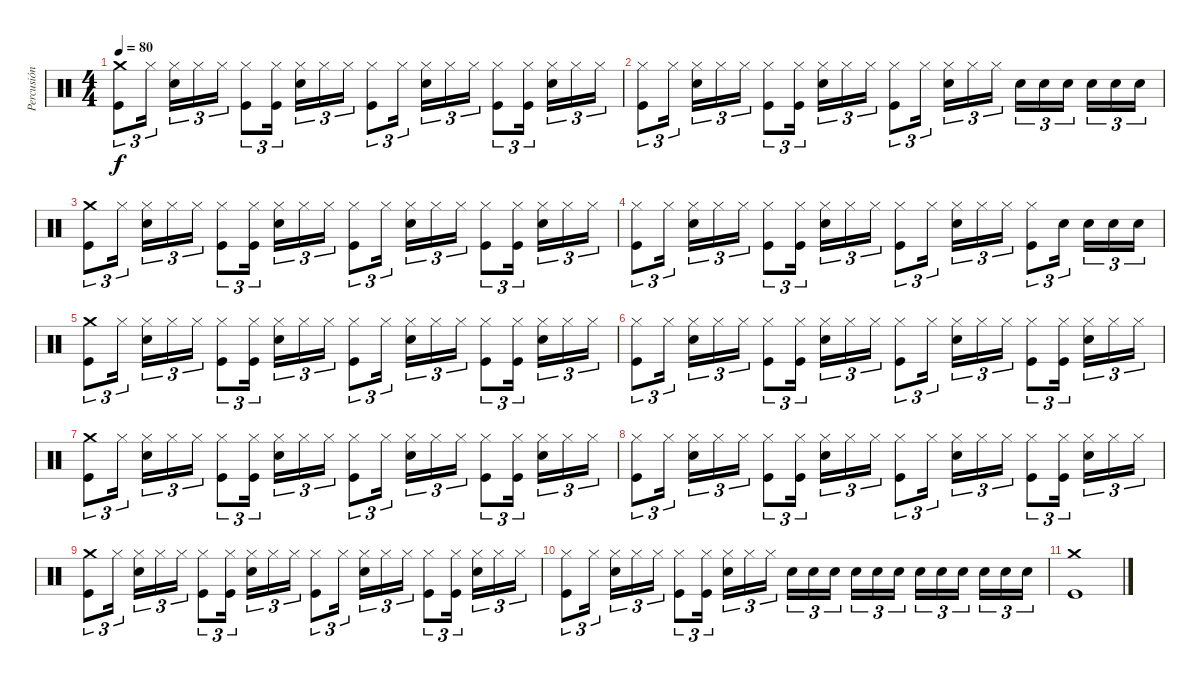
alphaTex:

\track ("Percusión con doble bombo" "Percusión ") {mute instrument percussion}
\staff {score}
\articulation defaults
\ts (4 4)
\tempo 80
\clef neutral
\ks c
("Crash medium (hit)" "Kick (hit)").8{tu (3 2) dy f} "Hi-Hat (closed)".16{tu (3 2) beam splitsecondary} ("Hi-Hat (closed)" "Snare (hit) 2").16{tu (3 2)} "Hi-Hat (closed)".16{tu (3 2)} "Hi-Hat (closed)".16{tu (3 2)} ("Hi-Hat (closed)" "Kick (hit)").8{tu (3 2)} ("Hi-Hat (closed)" "Kick (hit)").16{tu (3 2) beam splitsecondary} ("Hi-Hat (closed)" "Snare (hit) 2").16{tu (3 2)} "Hi-Hat (closed)".16{tu (3 2)} "Hi-Hat (closed)".16{tu (3 2)} ("Hi-Hat (closed)" "Kick (hit)").8{tu (3 2)} "Hi-Hat (closed)".16{tu (3 2) beam splitsecondary} ("Hi-Hat (closed)" "Snare (hit) 2").16{tu (3 2)} "Hi-Hat (closed)".16{tu (3 2)} "Hi-Hat (closed)".16{tu (3 2)} ("Hi-Hat (closed)" "Kick (hit)").8{tu (3 2)} ("Hi-Hat (closed)" "Kick (hit)").16{tu (3 2) beam splitsecondary} ("Hi-Hat (closed)" "Snare (hit) 2").16{tu (3 2)} "Hi-Hat (closed)".16{tu (3 2)} "Hi-Hat (closed)".16{tu (3 2)} |
("Hi-Hat (closed)" "Kick (hit)").8{tu (3 2)} "Hi-Hat (closed)".16{tu (3 2) beam splitsecondary} ("Hi-Hat (closed)" "Snare (hit) 2").16{tu (3 2)} "Hi-Hat (closed)".16{tu (3 2)} "Hi-Hat (closed)".16{tu (3 2)} ("Hi-Hat (closed)" "Kick (hit)").8{tu (3 2)} ("Hi-Hat (closed)" "Kick (hit)").16{tu (3 2) beam splitsecondary} ("Hi-Hat (closed)" "Snare (hit) 2").16{tu (3 2)} "Hi-Hat (closed)".16{tu (3 2)} "Hi-Hat (closed)".16{tu (3 2)} ("Hi-Hat (closed)" "Kick (hit)").8{tu (3 2)} "Hi-Hat (closed)".16{tu (3 2) beam splitsecondary} ("Hi-Hat (closed)" "Snare (hit) 2").16{tu (3 2)} "Hi-Hat (closed)".16{tu (3 2)} "Hi-Hat (closed)".16{tu (3 2)} "Snare (hit) 2".16{tu (3 2)} "Snare (hit) 2".16{tu (3 2)} "Snare (hit) 2".16{tu (3 2) beam splitsecondary} "Snare (hit) 2".16{tu (3 2)} "Snare (hit) 2".16{tu (3 2)} "Snare (hit) 2".16{tu (3 2)} |
("Crash medium (hit)" "Kick (hit)").8{tu (3 2)} "Hi-Hat (closed)".16{tu (3 2) beam splitsecondary} ("Hi-Hat (closed)" "Snare (hit) 2").16{tu (3 2)} "Hi-Hat (closed)".16{tu (3 2)} "Hi-Hat (closed)".16{tu (3 2)} ("Hi-Hat (closed)" "Kick (hit)").8{tu (3 2)} ("Hi-Hat (closed)" "Kick (hit)").16{tu (3 2) beam splitsecondary} ("Hi-Hat (closed)" "Snare (hit) 2").16{tu (3 2)} "Hi-Hat (closed)".16{tu (3 2)} "Hi-Hat (closed)".16{tu (3 2)} ("Hi-Hat (closed)" "Kick (hit)").8{tu (3 2)} "Hi-Hat (closed)".16{tu (3 2) beam splitsecondary} ("Hi-Hat (closed)" "Snare (hit) 2").16{tu (3 2)} "Hi-Hat (closed)".16{tu (3 2)} "Hi-Hat (closed)".16{tu (3 2)} ("Hi-Hat (closed)" "Kick (hit)").8{tu (3 2)} ("Hi-Hat (closed)" "Kick (hit)").16{tu (3 2) beam splitsecondary} ("Hi-Hat (closed)" "Snare (hit) 2").16{tu (3 2)} "Hi-Hat (closed)".16{tu (3 2)} "Hi-Hat (closed)".16{tu (3 2)} |
("Hi-Hat (closed)" "Kick (hit)").8{tu (3 2)} "Hi-Hat (closed)".16{tu (3 2) beam splitsecondary} ("Hi-Hat (closed)" "Snare (hit) 2").16{tu (3 2)} "Hi-Hat (closed)".16{tu (3 2)} "Hi-Hat (closed)".16{tu (3 2)} ("Hi-Hat (closed)" "Kick (hit)").8{tu (3 2)} ("Hi-Hat (closed)" "Kick (hit)").16{tu (3 2) beam splitsecondary} ("Hi-Hat (closed)" "Snare (hit) 2").16{tu (3 2)} "Hi-Hat (closed)".16{tu (3 2)} "Hi-Hat (closed)".16{tu (3 2)} ("Hi-Hat (closed)" "Kick (hit)").8{tu (3 2)} "Hi-Hat (closed)".16{tu (3 2) beam splitsecondary} ("Hi-Hat (closed)" "Snare (hit) 2").16{tu (3 2)} "Hi-Hat (closed)".16{tu (3 2)} "Hi-Hat (closed)".16{tu (3 2)} ("Hi-Hat (closed)" "Kick (hit)").8{tu (3 2)} "Snare (hit) 2".16{tu (3 2) beam splitsecondary} "Snare (hit) 2".16{tu (3 2)} "Snare (hit) 2".16{tu (3 2)} "Snare (hit) 2".16{tu (3 2)} |
("Crash medium (hit)" "Kick (hit)").8{tu (3 2)} "Hi-Hat (closed)".16{tu (3 2) beam splitsecondary} ("Hi-Hat (closed)" "Snare (hit) 2").16{tu (3 2)} "Hi-Hat (closed)".16{tu (3 2)} "Hi-Hat (closed)".16{tu (3 2)} ("Hi-Hat (closed)" "Kick (hit)").8{tu (3 2)} ("Hi-Hat (closed)" "Kick (hit)").16{tu (3 2) beam splitsecondary} ("Hi-Hat (closed)" "Snare (hit) 2").16{tu (3 2)} "Hi-Hat (closed)".16{tu (3 2)} "Hi-Hat (closed)".16{tu (3 2)} ("Hi-Hat (closed)" "Kick (hit)").8{tu (3 2)} "Hi-Hat (closed)".16{tu (3 2) beam splitsecondary} ("Hi-Hat (closed)" "Snare (hit) 2").16{tu (3 2)} "Hi-Hat (closed)".16{tu (3 2)} "Hi-Hat (closed)".16{tu (3 2)} ("Hi-Hat (closed)" "Kick (hit)").8{tu (3 2)} ("Hi-Hat (closed)" "Kick (hit)").16{tu (3 2) beam splitsecondary} ("Hi-Hat (closed)" "Snare (hit) 2").16{tu (3 2)} "Hi-Hat (closed)".16{tu (3 2)} "Hi-Hat (closed)".16{tu (3 2)} |
("Hi-Hat (closed)" "Kick (hit)").8{tu (3 2)} "Hi-Hat (closed)".16{tu (3 2) beam splitsecondary} ("Hi-Hat (closed)" "Snare (hit) 2").16{tu (3 2)} "Hi-Hat (closed)".16{tu (3 2)} "Hi-Hat (closed)".16{tu (3 2)} ("Hi-Hat (closed)" "Kick (hit)").8{tu (3 2)} ("Hi-Hat (closed)" "Kick (hit)").16{tu (3 2) beam splitsecondary} ("Hi-Hat (closed)" "Snare (hit) 2").16{tu (3 2)} "Hi-Hat (closed)".16{tu (3 2)} "Hi-Hat (closed)".16{tu (3 2)} ("Hi-Hat (closed)" "Kick (hit)").8{tu (3 2)} "Hi-Hat (closed)".16{tu (3 2) beam splitsecondary} ("Hi-Hat (closed)" "Snare (hit) 2").16{tu (3 2)} "Hi-Hat (closed)".16{tu (3 2)} "Hi-Hat (closed)".16{tu (3 2)} ("Hi-Hat (closed)" "Kick (hit)").8{tu (3 2)} ("Hi-Hat (closed)" "Kick (hit)").16{tu (3 2) beam splitsecondary} ("Hi-Hat (closed)" "Snare (hit) 2").16{tu (3 2)} "Hi-Hat (closed)".16{tu (3 2)} "Hi-Hat (closed)".16{tu (3 2)} |
("Crash medium (hit)" "Kick (hit)").8{tu (3 2)} "Hi-Hat (closed)".16{tu (3 2) beam splitsecondary} ("Hi-Hat (closed)" "Snare (hit) 2").16{tu (3 2)} "Hi-Hat (closed)".16{tu (3 2)} "Hi-Hat (closed)".16{tu (3 2)} ("Hi-Hat (closed)" "Kick (hit)").8{tu (3 2)} ("Hi-Hat (closed)" "Kick (hit)").16{tu (3 2) beam splitsecondary} ("Hi-Hat (closed)" "Snare (hit) 2").16{tu (3 2)} "Hi-Hat (closed)".16{tu (3 2)} "Hi-Hat (closed)".16{tu (3 2)} ("Hi-Hat (closed)" "Kick (hit)").8{tu (3 2)} "Hi-Hat (closed)".16{tu (3 2) beam splitsecondary} ("Hi-Hat (closed)" "Snare (hit) 2").16{tu (3 2)} "Hi-Hat (closed)".16{tu (3 2)} "Hi-Hat (closed)".16{tu (3 2)} ("Hi-Hat (closed)" "Kick (hit)").8{tu (3 2)} ("Hi-Hat (closed)" "Kick (hit)").16{tu (3 2) beam splitsecondary} ("Hi-Hat (closed)" "Snare (hit) 2").16{tu (3 2)} "Hi-Hat (closed)".16{tu (3 2)} "Hi-Hat (closed)".16{tu (3 2)} |
("Hi-Hat (closed)" "Kick (hit)").8{tu (3 2)} "Hi-Hat (closed)".16{tu (3 2) beam splitsecondary} ("Hi-Hat (closed)" "Snare (hit) 2").16{tu (3 2)} "Hi-Hat (closed)".16{tu (3 2)} "Hi-Hat (closed)".16{tu (3 2)} ("Hi-Hat (closed)" "Kick (hit)").8{tu (3 2)} ("Hi-Hat (closed)" "Kick (hit)").16{tu (3 2) beam splitsecondary} ("Hi-Hat (closed)" "Snare (hit) 2").16{tu (3 2)} "Hi-Hat (closed)".16{tu (3 2)} "Hi-Hat (closed)".16{tu (3 2)} ("Hi-Hat (closed)" "Kick (hit)").8{tu (3 2)} "Hi-Hat (closed)".16{tu (3 2) beam splitsecondary} ("Hi-Hat (closed)" "Snare (hit) 2").16{tu (3 2)} "Hi-Hat (closed)".16{tu (3 2)} "Hi-Hat (closed)".16{tu (3 2)} ("Hi-Hat (closed)" "Kick (hit)").8{tu (3 2)} ("Hi-Hat (closed)" "Kick (hit)").16{tu (3 2) beam splitsecondary} ("Hi-Hat (closed)" "Snare (hit) 2").16{tu (3 2)} "Hi-Hat (closed)".16{tu (3 2)} "Hi-Hat (closed)".16{tu (3 2)} |
("Crash medium (hit)" "Kick (hit)").8{tu (3 2)} "Hi-Hat (closed)".16{tu (3 2) beam splitsecondary} ("Hi-Hat (closed)" "Snare (hit) 2").16{tu (3 2)} "Hi-Hat (closed)".16{tu (3 2)} "Hi-Hat (closed)".16{tu (3 2)} ("Hi-Hat (closed)" "Kick (hit)").8{tu (3 2)} ("Hi-Hat (closed)" "Kick (hit)").16{tu (3 2) beam splitsecondary} ("Hi-Hat (closed)" "Snare (hit) 2").16{tu (3 2)} "Hi-Hat (closed)".16{tu (3 2)} "Hi-Hat (closed)".16{tu (3 2)} ("Hi-Hat (closed)" "Kick (hit)").8{tu (3 2)} "Hi-Hat (closed)".16{tu (3 2) beam splitsecondary} ("Hi-Hat (closed)" "Snare (hit) 2").16{tu (3 2)} "Hi-Hat (closed)".16{tu (3 2)} "Hi-Hat (closed)".16{tu (3 2)} ("Hi-Hat (closed)" "Kick (hit)").8{tu (3 2)} ("Hi-Hat (closed)" "Kick (hit)").16{tu (3 2) beam splitsecondary} ("Hi-Hat (closed)" "Snare (hit) 2").16{tu (3 2)} "Hi-Hat (closed)".16{tu (3 2)} "Hi-Hat (closed)".16{tu (3 2)} |
("Hi-Hat (closed)" "Kick (hit)").8{tu (3 2)} "Hi-Hat (closed)".16{tu (3 2) beam splitsecondary} ("Hi-Hat (closed)" "Snare (hit) 2").16{tu (3 2)} "Hi-Hat (closed)".16{tu (3 2)} "Hi-Hat (closed)".16{tu (3 2)} ("Hi-Hat (closed)" "Kick (hit)").8{tu (3 2)} ("Hi-Hat (closed)" "Kick (hit)").16{tu (3 2) beam splitsecondary} ("Hi-Hat (closed)" "Snare (hit) 2").16{tu (3 2)} "Hi-Hat (closed)".16{tu (3 2)} "Hi-Hat (closed)".16{tu (3 2)} "Snare (hit) 2".16{tu (3 2)} "Snare (hit) 2".16{tu (3 2)} "Snare (hit) 2".16{tu (3 2) beam splitsecondary} "Snare (hit) 2".16{tu (3 2)} "Snare (hit) 2".16{tu (3 2)} "Snare (hit) 2".16{tu (3 2)} "Snare (hit) 2".16{tu (3 2)} "Snare (hit) 2".16{tu (3 2)} "Snare (hit) 2".16{tu (3 2) beam splitsecondary} "Snare (hit) 2".16{tu (3 2)} "Snare (hit) 2".16{tu (3 2)} "Snare (hit) 2".16{tu (3 2)} |
("Crash medium (hit)" "Kick (hit)").1
